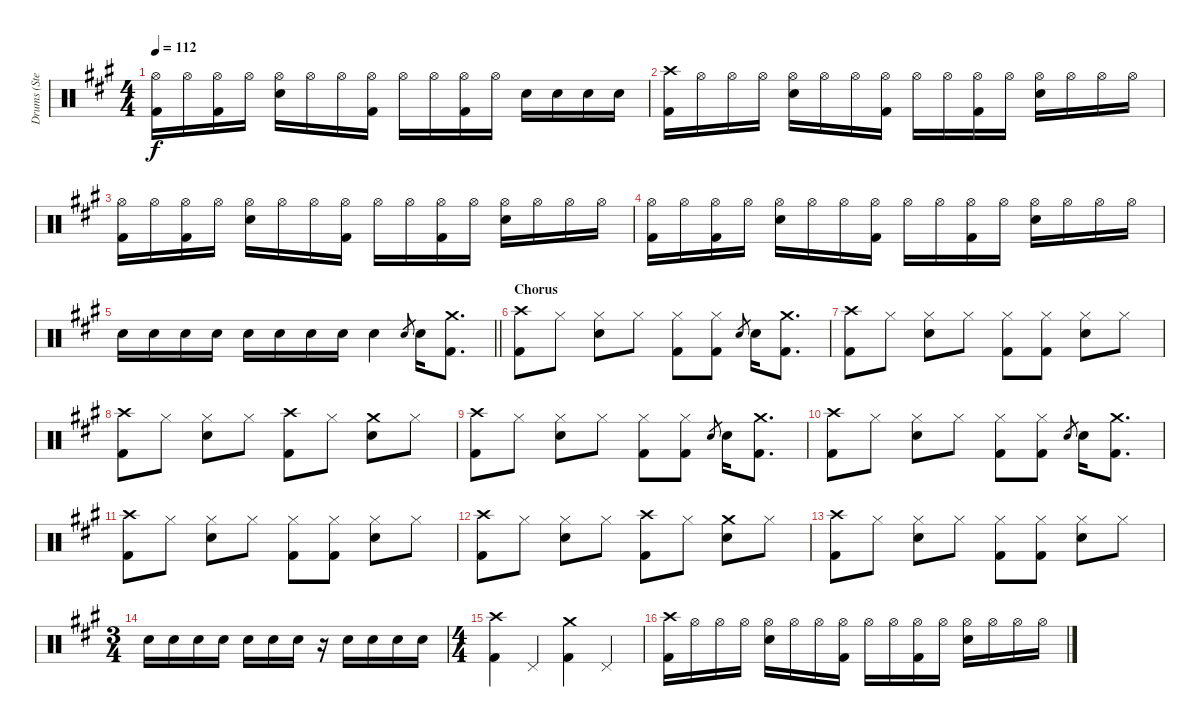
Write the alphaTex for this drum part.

\track ("Drums (Steven)" "Drums (Ste") {instrument percussion}
\staff {score}
\articulation defaults
\ts (4 4)
\tempo 112
\clef neutral
\ks f#minor
("Hi-Hat (open)" "Kick (hit) 2").16{dy f} "Hi-Hat (open)".16 ("Hi-Hat (open)" "Kick (hit) 2").16 "Hi-Hat (open)".16 ("Hi-Hat (open)" "Snare (hit) 2").16 "Hi-Hat (open)".16 "Hi-Hat (open)".16 ("Hi-Hat (open)" "Kick (hit) 2").16 "Hi-Hat (open)".16 "Hi-Hat (open)".16 ("Hi-Hat (open)" "Kick (hit) 2").16 "Hi-Hat (open)".16 "Snare (hit) 2".16 "Snare (hit) 2".16 "Snare (hit) 2".16 "Snare (hit) 2".16 |
("Crash high (hit)" "Kick (hit) 2").16 "Hi-Hat (open)".16 "Hi-Hat (open)".16 "Hi-Hat (open)".16 ("Hi-Hat (open)" "Snare (hit) 2").16 "Hi-Hat (open)".16 "Hi-Hat (open)".16 ("Hi-Hat (open)" "Kick (hit) 2").16 "Hi-Hat (open)".16 "Hi-Hat (open)".16 ("Hi-Hat (open)" "Kick (hit) 2").16 "Hi-Hat (open)".16 ("Hi-Hat (open)" "Snare (hit) 2").16 "Hi-Hat (open)".16 "Hi-Hat (open)".16 "Hi-Hat (open)".16 |
("Hi-Hat (open)" "Kick (hit) 2").16 "Hi-Hat (open)".16 ("Hi-Hat (open)" "Kick (hit) 2").16 "Hi-Hat (open)".16 ("Hi-Hat (open)" "Snare (hit) 2").16 "Hi-Hat (open)".16 "Hi-Hat (open)".16 ("Hi-Hat (open)" "Kick (hit) 2").16 "Hi-Hat (open)".16 "Hi-Hat (open)".16 ("Hi-Hat (open)" "Kick (hit) 2").16 "Hi-Hat (open)".16 ("Hi-Hat (open)" "Snare (hit) 2").16 "Hi-Hat (open)".16 "Hi-Hat (open)".16 "Hi-Hat (open)".16 |
("Hi-Hat (open)" "Kick (hit) 2").16 "Hi-Hat (open)".16 ("Hi-Hat (open)" "Kick (hit) 2").16 "Hi-Hat (open)".16 ("Hi-Hat (open)" "Snare (hit) 2").16 "Hi-Hat (open)".16 "Hi-Hat (open)".16 ("Hi-Hat (open)" "Kick (hit) 2").16 "Hi-Hat (open)".16 "Hi-Hat (open)".16 ("Hi-Hat (open)" "Kick (hit) 2").16 "Hi-Hat (open)".16 ("Hi-Hat (open)" "Snare (hit) 2").16 "Hi-Hat (open)".16 "Hi-Hat (open)".16 "Hi-Hat (open)".16 |
\barLineRight lightlight "Snare (hit) 2".16 "Snare (hit) 2".16 "Snare (hit) 2".16 "Snare (hit) 2".16 "Snare (hit) 2".16 "Snare (hit) 2".16 "Snare (hit) 2".16 "Snare (hit) 2".16 "Snare (hit) 2".4 "Snare (hit) 2".8{gr} "Snare (hit) 2".16
("Crash medium (hit)" "Kick (hit) 2").8{d} |
\section ("" "Chorus")
("Crash high (hit)" "Kick (hit) 2").8 "Hi-Hat (closed)".8 ("Hi-Hat (closed)" "Snare (hit) 2").8 "Hi-Hat (closed)".8 ("Hi-Hat (closed)" "Kick (hit) 2").8 ("Hi-Hat (closed)" "Kick (hit) 2").8 "Snare (hit) 2".8{gr} "Snare (hit) 2".16 ("Crash medium (hit)" "Kick (hit) 2").8{d} |
("Crash high (hit)" "Kick (hit) 2").8 "Hi-Hat (closed)".8 ("Hi-Hat (closed)" "Snare (hit) 2").8 "Hi-Hat (closed)".8 ("Hi-Hat (closed)" "Kick (hit) 2").8 ("Hi-Hat (closed)" "Kick (hit) 2").8 ("Hi-Hat (closed)" "Snare (hit) 2").8 "Hi-Hat (closed)".8 |
("Crash high (hit)" "Kick (hit) 2").8 "Hi-Hat (closed)".8 ("Hi-Hat (closed)" "Snare (hit) 2").8 "Hi-Hat (closed)".8 ("Crash high (hit)" "Kick (hit) 2").8 "Hi-Hat (closed)".8 ("Crash medium (hit)" "Snare (hit) 2").8 "Hi-Hat (closed)".8 |
("Crash high (hit)" "Kick (hit) 2").8 "Hi-Hat (closed)".8 ("Hi-Hat (closed)" "Snare (hit) 2").8 "Hi-Hat (closed)".8 ("Hi-Hat (closed)" "Kick (hit) 2").8 ("Hi-Hat (closed)" "Kick (hit) 2").8 "Snare (hit) 2".8{gr} "Snare (hit) 2".16 ("Crash medium (hit)" "Kick (hit) 2").8{d} |
("Crash high (hit)" "Kick (hit) 2").8 "Hi-Hat (closed)".8 ("Hi-Hat (closed)" "Snare (hit) 2").8 "Hi-Hat (closed)".8 ("Hi-Hat (closed)" "Kick (hit) 2").8 ("Hi-Hat (closed)" "Kick (hit) 2").8 "Snare (hit) 2".8{gr} "Snare (hit) 2".16 ("Crash medium (hit)" "Kick (hit) 2").8{d} |
("Crash high (hit)" "Kick (hit) 2").8 "Hi-Hat (closed)".8 ("Hi-Hat (closed)" "Snare (hit) 2").8 "Hi-Hat (closed)".8 ("Hi-Hat (closed)" "Kick (hit) 2").8 ("Hi-Hat (closed)" "Kick (hit) 2").8 ("Hi-Hat (closed)" "Snare (hit) 2").8 "Hi-Hat (closed)".8 |
("Crash high (hit)" "Kick (hit) 2").8 "Hi-Hat (closed)".8 ("Hi-Hat (closed)" "Snare (hit) 2").8 "Hi-Hat (closed)".8 ("Crash high (hit)" "Kick (hit) 2").8 "Hi-Hat (closed)".8 ("Crash medium (hit)" "Snare (hit) 2").8 "Hi-Hat (closed)".8 |
("Crash high (hit)" "Kick (hit) 2").8 "Hi-Hat (closed)".8 ("Hi-Hat (closed)" "Snare (hit) 2").8 "Hi-Hat (closed)".8 ("Hi-Hat (closed)" "Kick (hit) 2").8 ("Hi-Hat (closed)" "Kick (hit) 2").8 ("Hi-Hat (closed)" "Snare (hit) 2").8 "Hi-Hat (closed)".8 |
\ts (3 4)
"Snare (hit) 2".16 "Snare (hit) 2".16 "Snare (hit) 2".16 "Snare (hit) 2".16 "Snare (hit) 2".16 "Snare (hit) 2".16 "Snare (hit) 2".16 r.16 "Snare (hit) 2".16 "Snare (hit) 2".16 "Snare (hit) 2".16 "Snare (hit) 2".16 |
\ts (4 4)
("Crash high (hit)" "Kick (hit) 2").4 "Pedal Hi-Hat (hit)".4 ("Crash medium (hit)" "Kick (hit) 2").4 "Pedal Hi-Hat (hit)".4 |
("Crash high (hit)" "Kick (hit) 2").16 "Hi-Hat (open)".16 "Hi-Hat (open)".16 "Hi-Hat (open)".16 ("Hi-Hat (open)" "Snare (hit) 2").16 "Hi-Hat (open)".16 "Hi-Hat (open)".16 ("Hi-Hat (open)" "Kick (hit) 2").16 "Hi-Hat (open)".16 "Hi-Hat (open)".16 ("Hi-Hat (open)" "Kick (hit) 2").16 "Hi-Hat (open)".16 ("Hi-Hat (open)" "Snare (hit) 2").16 "Hi-Hat (open)".16 "Hi-Hat (open)".16 "Hi-Hat (open)".16
